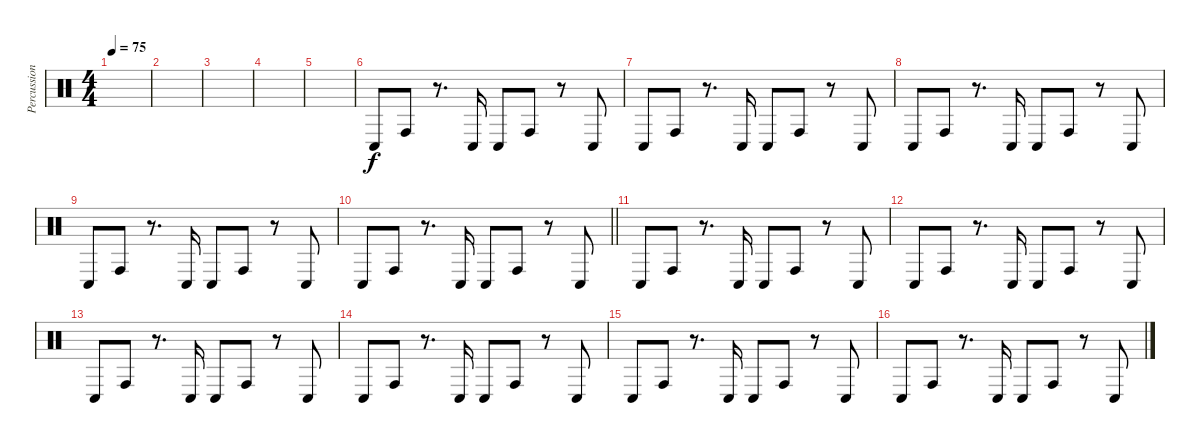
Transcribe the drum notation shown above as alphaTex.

\track ("Percussion (bongo's) +" "Percussion") {instrument percussion}
\staff {score}
\articulation defaults
\ts (4 4)
\tempo 75
\clef neutral
\ks c
|
|
|
|
|
"Conga low (hit)".8{volume 0} "Conga high (hit)".8{volume 16} r.8{d} "Conga low (hit)".16 "Conga low (hit)".8 "Conga high (hit)".8 r.8 "Conga low (hit)".8 |
"Conga low (hit)".8 "Conga high (hit)".8 r.8{d} "Conga low (hit)".16 "Conga low (hit)".8 "Conga high (hit)".8 r.8 "Conga low (hit)".8 |
"Conga low (hit)".8 "Conga high (hit)".8 r.8{d} "Conga low (hit)".16 "Conga low (hit)".8 "Conga high (hit)".8 r.8 "Conga low (hit)".8 |
"Conga low (hit)".8 "Conga high (hit)".8 r.8{d} "Conga low (hit)".16 "Conga low (hit)".8 "Conga high (hit)".8 r.8 "Conga low (hit)".8 |
\barLineRight lightlight "Conga low (hit)".8 "Conga high (hit)".8
r.8{d} "Conga low (hit)".16 "Conga low (hit)".8 "Conga high (hit)".8 r.8 "Conga low (hit)".8 |
"Conga low (hit)".8 "Conga high (hit)".8 r.8{d} "Conga low (hit)".16 "Conga low (hit)".8 "Conga high (hit)".8 r.8 "Conga low (hit)".8 |
"Conga low (hit)".8 "Conga high (hit)".8 r.8{d} "Conga low (hit)".16 "Conga low (hit)".8 "Conga high (hit)".8 r.8 "Conga low (hit)".8 |
"Conga low (hit)".8 "Conga high (hit)".8 r.8{d} "Conga low (hit)".16 "Conga low (hit)".8 "Conga high (hit)".8 r.8 "Conga low (hit)".8 |
"Conga low (hit)".8 "Conga high (hit)".8 r.8{d} "Conga low (hit)".16 "Conga low (hit)".8 "Conga high (hit)".8 r.8 "Conga low (hit)".8 |
"Conga low (hit)".8 "Conga high (hit)".8 r.8{d} "Conga low (hit)".16 "Conga low (hit)".8 "Conga high (hit)".8 r.8 "Conga low (hit)".8 |
"Conga low (hit)".8 "Conga high (hit)".8 r.8{d} "Conga low (hit)".16 "Conga low (hit)".8 "Conga high (hit)".8 r.8 "Conga low (hit)".8
